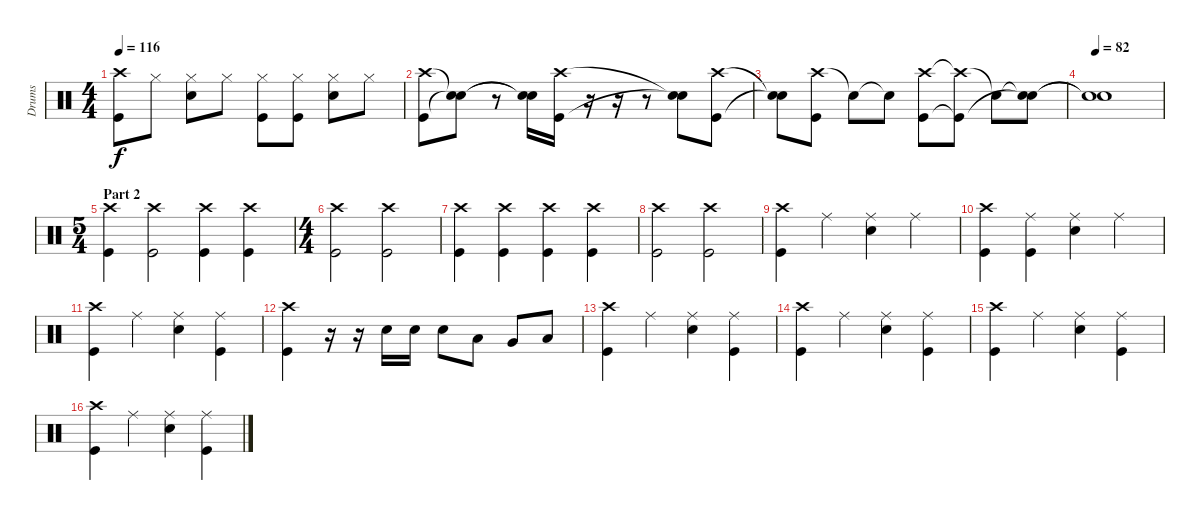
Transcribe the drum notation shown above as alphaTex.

\track ("Drums" "Drums") {instrument percussion}
\staff {score}
\articulation defaults
\ts (4 4)
\tempo 116
\clef neutral
\ks c
("Crash high (hit)" "Kick (hit)").8{dy f} "Hi-Hat (closed)".8 ("Hi-Hat (closed)" "Snare (hit) 2").8 "Hi-Hat (closed)".8 ("Hi-Hat (closed)" "Kick (hit)").8 ("Hi-Hat (closed)" "Kick (hit)").8 ("Hi-Hat (closed)" "Snare (hit) 2").8 "Hi-Hat (closed)".8 |
("Crash high (hit)" "Kick (hit)").8 ("Snare (hit)"{t} "Snare (hit)"{t}).8 r.8 ("Snare (hit)"{t} "Snare (hit)"{t}).16 ("Crash high (hit)" "Kick (hit)").16 r.16 r.16 r.8 ("Snare (hit)"{t} "Snare (hit)"{t}).8 ("Crash high (hit)" "Kick (hit)").8 |
("Snare (hit)"{t} "Snare (hit)"{t}).8 ("Crash high (hit)" "Kick (hit)").8 "Snare (hit)"{t}.8 "Snare (hit)"{t}.8 ("Crash high (hit)" "Kick (hit)").8 ("Crash high (hit)"{t} "Kick (hit)"{t}).8 "Snare (hit)"{t}.8 ("Snare (hit)"{t} "Snare (hit)"{t}).8 |
\tempo 82
("Snare (hit)"{t} "Snare (hit)"{t}).1 |
\ts (5 4)
\section ("" "Part 2")
("Crash high (hit)" "Kick (hit)").4 ("Crash high (hit)" "Kick (hit)").2 ("Crash high (hit)" "Kick (hit)").4 ("Crash high (hit)" "Kick (hit)").4 |
\ts (4 4)
("Crash high (hit)" "Kick (hit)").2 ("Crash high (hit)" "Kick (hit)").2 |
("Crash high (hit)" "Kick (hit)").4 ("Crash high (hit)" "Kick (hit)").4 ("Crash high (hit)" "Kick (hit)").4 ("Crash high (hit)" "Kick (hit)").4 |
("Crash high (hit)" "Kick (hit)").2 ("Crash high (hit)" "Kick (hit)").2 |
("Crash high (hit)" "Kick (hit)").4 "Ride (middle)".4 ("Ride (middle)" "Snare (hit) 2").4 "Ride (middle)".4 |
("Crash high (hit)" "Kick (hit)").4 ("Ride (middle)" "Kick (hit)").4 ("Ride (middle)" "Snare (hit) 2").4 "Ride (middle)".4 |
("Crash high (hit)" "Kick (hit)").4 "Ride (middle)".4 ("Ride (middle)" "Snare (hit) 2").4 ("Ride (middle)" "Kick (hit)").4 |
("Crash high (hit)" "Kick (hit)").4 r.16 r.16 "Snare (hit) 2".16 "Snare (hit) 2".16 "Snare (hit) 2".8 "Low Tom (hit)".8 "Very Low Tom (hit)".8 "Low Floor Tom (hit)".8 |
("Crash high (hit)" "Kick (hit)").4 "Ride (middle)".4 ("Ride (middle)" "Snare (hit) 2").4 ("Ride (middle)" "Kick (hit)").4 |
("Crash high (hit)" "Kick (hit)").4 "Ride (middle)".4 ("Ride (middle)" "Snare (hit) 2").4 ("Ride (middle)" "Kick (hit)").4 |
("Crash high (hit)" "Kick (hit)").4 "Ride (middle)".4 ("Ride (middle)" "Snare (hit) 2").4 ("Ride (middle)" "Kick (hit)").4 |
("Crash high (hit)" "Kick (hit)").4 "Ride (middle)".4 ("Ride (middle)" "Snare (hit) 2").4 ("Ride (middle)" "Kick (hit)").4
